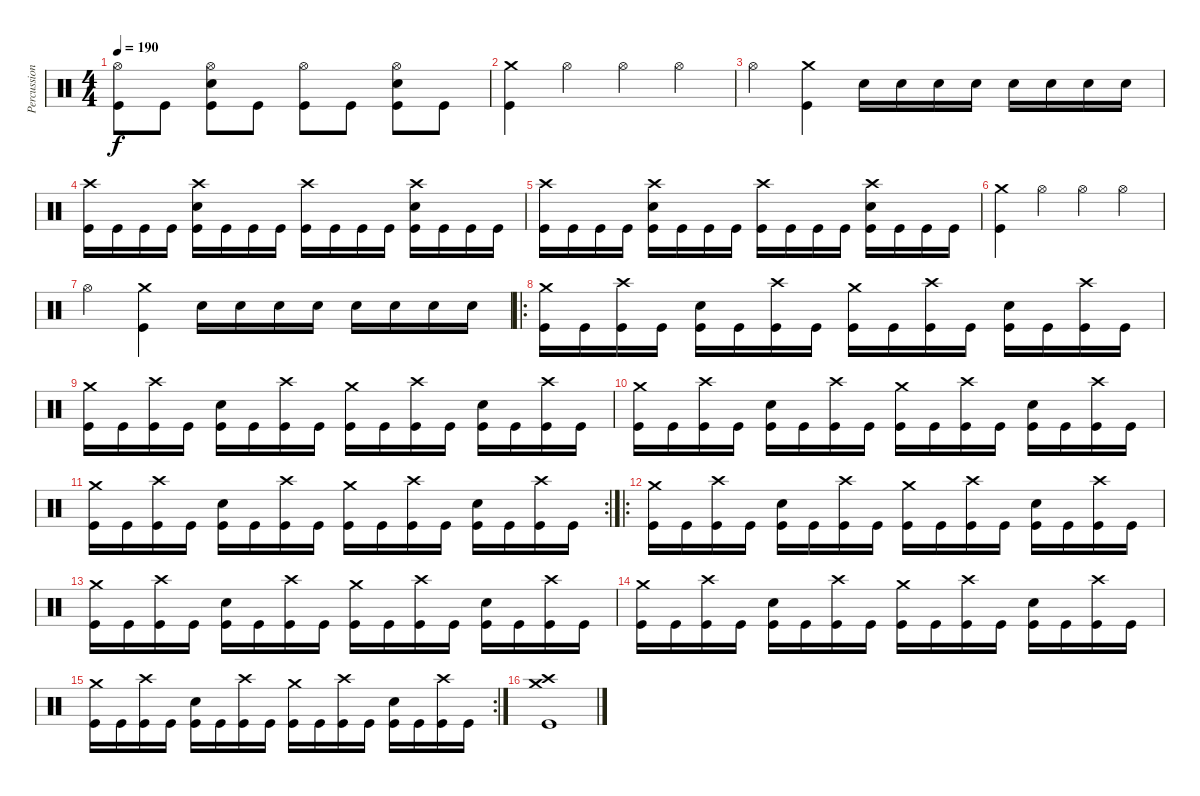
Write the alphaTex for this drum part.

\track ("Percussion" "Percussion") {instrument percussion}
\staff {score}
\articulation defaults
\ts (4 4)
\tempo 190
\clef neutral
\ks c
("Hi-Hat (open)" "Kick (hit)").8{dy f} "Kick (hit)".8 ("Hi-Hat (open)" "Snare (hit) 2" "Kick (hit)").8 "Kick (hit)".8 ("Hi-Hat (open)" "Kick (hit)").8 "Kick (hit)".8 ("Hi-Hat (open)" "Snare (hit) 2" "Kick (hit)").8 "Kick (hit)".8 |
("Crash medium (hit)" "Kick (hit)").4 "Hi-Hat (open)".4 "Hi-Hat (open)".4 "Hi-Hat (open)".4 |
"Hi-Hat (open)".4 ("Crash medium (hit)" "Kick (hit)").4 "Snare (hit) 2".16 "Snare (hit) 2".16 "Snare (hit) 2".16 "Snare (hit) 2".16 "Snare (hit) 2".16 "Snare (hit) 2".16 "Snare (hit) 2".16 "Snare (hit) 2".16 |
("Crash high (hit)" "Kick (hit)").16 "Kick (hit)".16 "Kick (hit)".16 "Kick (hit)".16 ("Crash high (hit)" "Snare (hit) 2" "Kick (hit)").16 "Kick (hit)".16 "Kick (hit)".16 "Kick (hit)".16 ("Crash high (hit)" "Kick (hit)").16 "Kick (hit)".16 "Kick (hit)".16 "Kick (hit)".16 ("Crash high (hit)" "Snare (hit) 2" "Kick (hit)").16 "Kick (hit)".16 "Kick (hit)".16 "Kick (hit)".16 |
("Crash high (hit)" "Kick (hit)").16 "Kick (hit)".16 "Kick (hit)".16 "Kick (hit)".16 ("Crash high (hit)" "Snare (hit) 2" "Kick (hit)").16 "Kick (hit)".16 "Kick (hit)".16 "Kick (hit)".16 ("Crash high (hit)" "Kick (hit)").16 "Kick (hit)".16 "Kick (hit)".16 "Kick (hit)".16 ("Crash high (hit)" "Snare (hit) 2" "Kick (hit)").16 "Kick (hit)".16 "Kick (hit)".16 "Kick (hit)".16 |
("Crash medium (hit)" "Kick (hit)").4 "Hi-Hat (open)".4 "Hi-Hat (open)".4 "Hi-Hat (open)".4 |
"Hi-Hat (open)".4 ("Crash medium (hit)" "Kick (hit)").4 "Snare (hit) 2".16 "Snare (hit) 2".16 "Snare (hit) 2".16 "Snare (hit) 2".16 "Snare (hit) 2".16 "Snare (hit) 2".16 "Snare (hit) 2".16 "Snare (hit) 2".16 |
\ro
("Crash medium (hit)" "Kick (hit)").16 "Kick (hit)".16 ("Crash high (hit)" "Kick (hit)").16 "Kick (hit)".16 ("Snare (hit) 2" "Kick (hit)").16 "Kick (hit)".16 ("Crash high (hit)" "Kick (hit)").16 "Kick (hit)".16 ("Crash medium (hit)" "Kick (hit)").16 "Kick (hit)".16 ("Crash high (hit)" "Kick (hit)").16 "Kick (hit)".16 ("Snare (hit) 2" "Kick (hit)").16 "Kick (hit)".16 ("Crash high (hit)" "Kick (hit)").16 "Kick (hit)".16 |
("Crash medium (hit)" "Kick (hit)").16 "Kick (hit)".16 ("Crash high (hit)" "Kick (hit)").16 "Kick (hit)".16 ("Snare (hit) 2" "Kick (hit)").16 "Kick (hit)".16 ("Crash high (hit)" "Kick (hit)").16 "Kick (hit)".16 ("Crash medium (hit)" "Kick (hit)").16 "Kick (hit)".16 ("Crash high (hit)" "Kick (hit)").16 "Kick (hit)".16 ("Snare (hit) 2" "Kick (hit)").16 "Kick (hit)".16 ("Crash high (hit)" "Kick (hit)").16 "Kick (hit)".16 |
("Crash medium (hit)" "Kick (hit)").16 "Kick (hit)".16 ("Crash high (hit)" "Kick (hit)").16 "Kick (hit)".16 ("Snare (hit) 2" "Kick (hit)").16 "Kick (hit)".16 ("Crash high (hit)" "Kick (hit)").16 "Kick (hit)".16 ("Crash medium (hit)" "Kick (hit)").16 "Kick (hit)".16 ("Crash high (hit)" "Kick (hit)").16 "Kick (hit)".16 ("Snare (hit) 2" "Kick (hit)").16 "Kick (hit)".16 ("Crash high (hit)" "Kick (hit)").16 "Kick (hit)".16 |
\rc 2
("Crash medium (hit)" "Kick (hit)").16 "Kick (hit)".16 ("Crash high (hit)" "Kick (hit)").16 "Kick (hit)".16 ("Snare (hit) 2" "Kick (hit)").16 "Kick (hit)".16 ("Crash high (hit)" "Kick (hit)").16 "Kick (hit)".16 ("Crash medium (hit)" "Kick (hit)").16 "Kick (hit)".16 ("Crash high (hit)" "Kick (hit)").16 "Kick (hit)".16 ("Snare (hit) 2" "Kick (hit)").16 "Kick (hit)".16 ("Crash high (hit)" "Kick (hit)").16 "Kick (hit)".16 |
\ro
("Crash medium (hit)" "Kick (hit)").16 "Kick (hit)".16 ("Crash high (hit)" "Kick (hit)").16 "Kick (hit)".16 ("Snare (hit) 2" "Kick (hit)").16 "Kick (hit)".16 ("Crash high (hit)" "Kick (hit)").16 "Kick (hit)".16 ("Crash medium (hit)" "Kick (hit)").16 "Kick (hit)".16 ("Crash high (hit)" "Kick (hit)").16 "Kick (hit)".16 ("Snare (hit) 2" "Kick (hit)").16 "Kick (hit)".16 ("Crash high (hit)" "Kick (hit)").16 "Kick (hit)".16 |
("Crash medium (hit)" "Kick (hit)").16 "Kick (hit)".16 ("Crash high (hit)" "Kick (hit)").16 "Kick (hit)".16 ("Snare (hit) 2" "Kick (hit)").16 "Kick (hit)".16 ("Crash high (hit)" "Kick (hit)").16 "Kick (hit)".16 ("Crash medium (hit)" "Kick (hit)").16 "Kick (hit)".16 ("Crash high (hit)" "Kick (hit)").16 "Kick (hit)".16 ("Snare (hit) 2" "Kick (hit)").16 "Kick (hit)".16 ("Crash high (hit)" "Kick (hit)").16 "Kick (hit)".16 |
("Crash medium (hit)" "Kick (hit)").16 "Kick (hit)".16 ("Crash high (hit)" "Kick (hit)").16 "Kick (hit)".16 ("Snare (hit) 2" "Kick (hit)").16 "Kick (hit)".16 ("Crash high (hit)" "Kick (hit)").16 "Kick (hit)".16 ("Crash medium (hit)" "Kick (hit)").16 "Kick (hit)".16 ("Crash high (hit)" "Kick (hit)").16 "Kick (hit)".16 ("Snare (hit) 2" "Kick (hit)").16 "Kick (hit)".16 ("Crash high (hit)" "Kick (hit)").16 "Kick (hit)".16 |
\rc 2
("Crash medium (hit)" "Kick (hit)").16 "Kick (hit)".16 ("Crash high (hit)" "Kick (hit)").16 "Kick (hit)".16 ("Snare (hit) 2" "Kick (hit)").16 "Kick (hit)".16 ("Crash high (hit)" "Kick (hit)").16 "Kick (hit)".16 ("Crash medium (hit)" "Kick (hit)").16 "Kick (hit)".16 ("Crash high (hit)" "Kick (hit)").16 "Kick (hit)".16 ("Snare (hit) 2" "Kick (hit)").16 "Kick (hit)".16 ("Crash high (hit)" "Kick (hit)").16 "Kick (hit)".16 |
("Crash medium (hit)" "Crash high (hit)" "Kick (hit)").1
